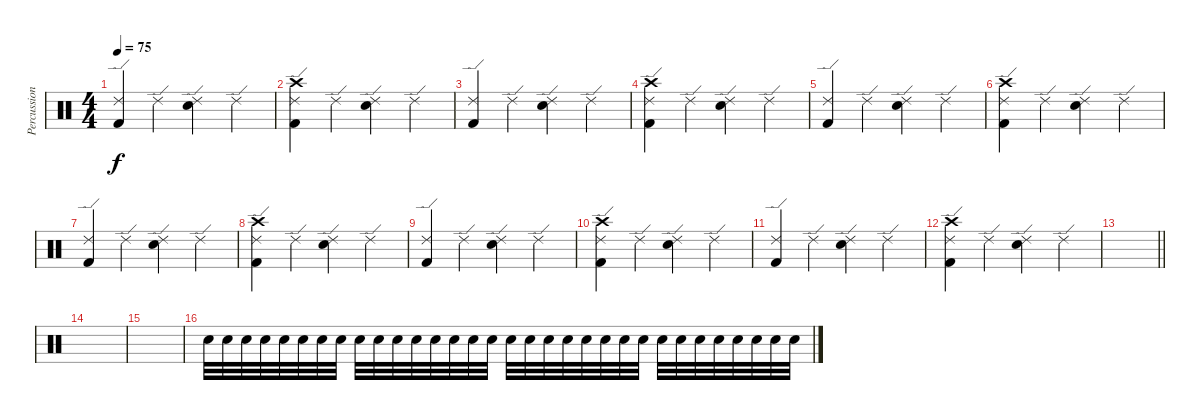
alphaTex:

\track ("Percussion" "Percussion") {instrument percussion}
\staff {score}
\articulation defaults
\ts (4 4)
\tempo 75
\clef neutral
\ks c
("Ride (edge) 2" "Kick (hit) 2").4{dy f} "Ride (edge) 2".4 ("Ride (edge) 2" "Electric Snare (hit)").4 "Ride (edge) 2".4 |
("Crash high (hit)" "Ride (edge) 2" "Kick (hit) 2").4 "Ride (edge) 2".4 ("Ride (edge) 2" "Electric Snare (hit)").4 "Ride (edge) 2".4 |
("Ride (edge) 2" "Kick (hit) 2").4 "Ride (edge) 2".4 ("Ride (edge) 2" "Electric Snare (hit)").4 "Ride (edge) 2".4 |
("Crash high (hit)" "Ride (edge) 2" "Kick (hit) 2").4 "Ride (edge) 2".4 ("Ride (edge) 2" "Electric Snare (hit)").4 "Ride (edge) 2".4 |
("Ride (edge) 2" "Kick (hit) 2").4 "Ride (edge) 2".4 ("Ride (edge) 2" "Electric Snare (hit)").4 "Ride (edge) 2".4 |
("Crash high (hit)" "Ride (edge) 2" "Kick (hit) 2").4 "Ride (edge) 2".4 ("Ride (edge) 2" "Electric Snare (hit)").4 "Ride (edge) 2".4 |
("Ride (edge) 2" "Kick (hit) 2").4 "Ride (edge) 2".4 ("Ride (edge) 2" "Electric Snare (hit)").4 "Ride (edge) 2".4 |
("Crash high (hit)" "Ride (edge) 2" "Kick (hit) 2").4 "Ride (edge) 2".4 ("Ride (edge) 2" "Electric Snare (hit)").4 "Ride (edge) 2".4 |
("Ride (edge) 2" "Kick (hit) 2").4 "Ride (edge) 2".4 ("Ride (edge) 2" "Electric Snare (hit)").4 "Ride (edge) 2".4 |
("Crash high (hit)" "Ride (edge) 2" "Kick (hit) 2").4 "Ride (edge) 2".4 ("Ride (edge) 2" "Electric Snare (hit)").4 "Ride (edge) 2".4 |
("Ride (edge) 2" "Kick (hit) 2").4 "Ride (edge) 2".4 ("Ride (edge) 2" "Electric Snare (hit)").4 "Ride (edge) 2".4 |
("Crash high (hit)" "Ride (edge) 2" "Kick (hit) 2").4 "Ride (edge) 2".4 ("Ride (edge) 2" "Electric Snare (hit)").4 "Ride (edge) 2".4 |
\barLineRight lightlight
|
\section ("" "")
|
|
"Electric Snare (hit)".32{volume 3} "Electric Snare (hit)".32{volume 13} "Electric Snare (hit)".32 "Electric Snare (hit)".32 "Electric Snare (hit)".32 "Electric Snare (hit)".32 "Electric Snare (hit)".32 "Electric Snare (hit)".32 "Electric Snare (hit)".32 "Electric Snare (hit)".32 "Electric Snare (hit)".32 "Electric Snare (hit)".32 "Electric Snare (hit)".32 "Electric Snare (hit)".32 "Electric Snare (hit)".32 "Electric Snare (hit)".32 "Electric Snare (hit)".32 "Electric Snare (hit)".32 "Electric Snare (hit)".32 "Electric Snare (hit)".32 "Electric Snare (hit)".32 "Electric Snare (hit)".32 "Electric Snare (hit)".32 "Electric Snare (hit)".32 "Electric Snare (hit)".32 "Electric Snare (hit)".32 "Electric Snare (hit)".32 "Electric Snare (hit)".32 "Electric Snare (hit)".32 "Electric Snare (hit)".32 "Electric Snare (hit)".32 "Electric Snare (hit)".32
